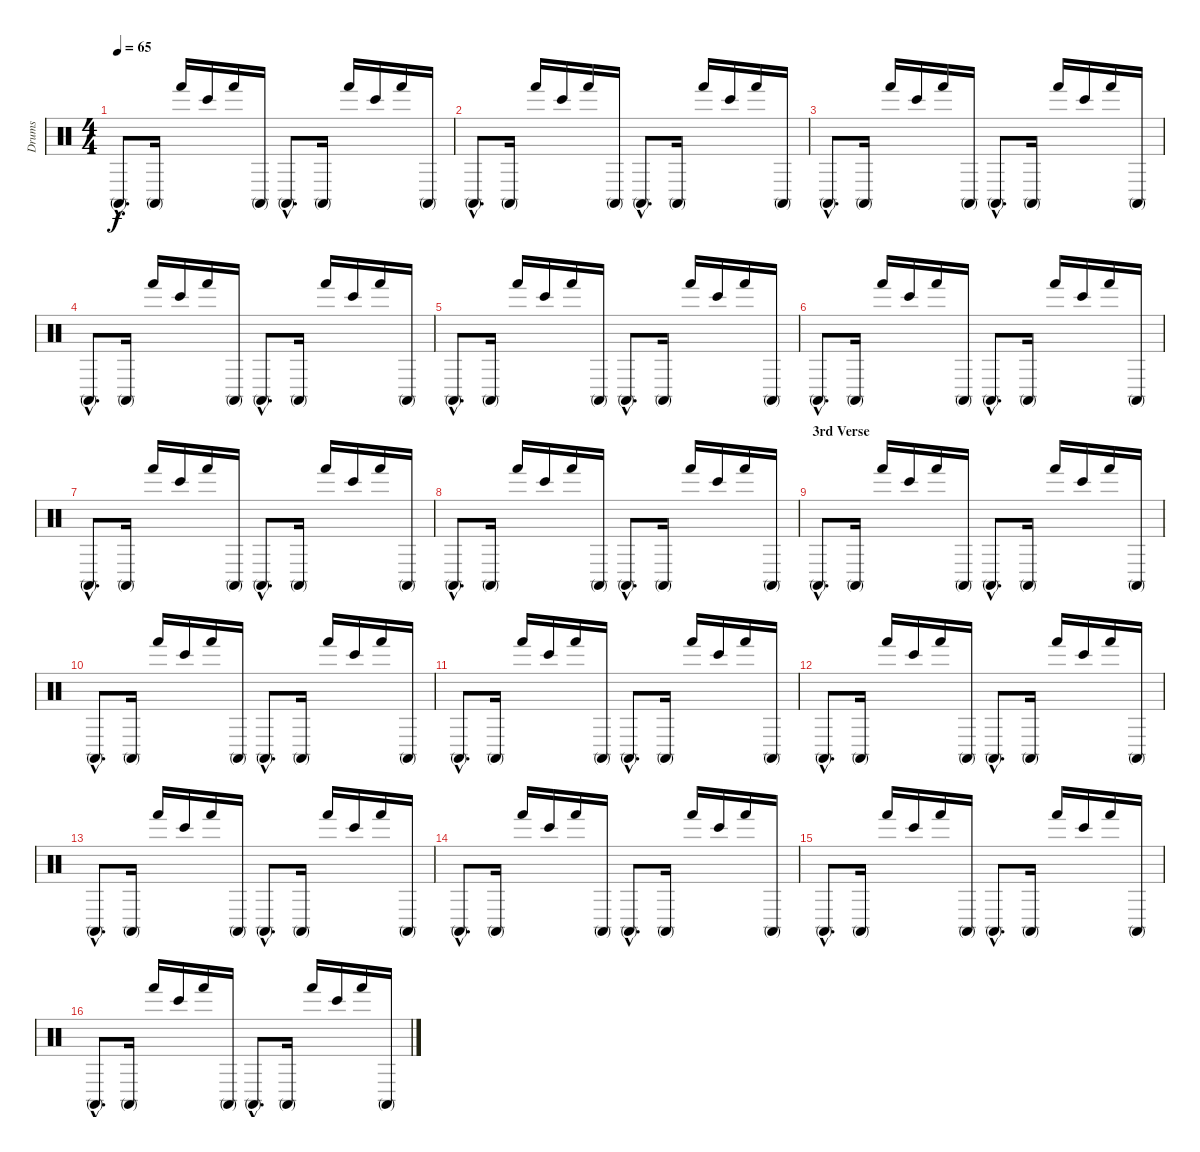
\track ("Drums" "Drums") {instrument percussion}
\staff {score}
\articulation defaults
\ts (4 4)
\tempo 65
\clef neutral
\ks c "Conga high (mute)"{hac}.8{d dy f} "Conga high (mute)".16 "Hand (hit)".16 "Bongo High (hit)".16 "Hand (hit)".16 "Conga high (mute)".16 "Conga high (mute)"{hac}.8{d} "Conga high (mute)".16 "Hand (hit)".16 "Bongo High (hit)".16 "Hand (hit)".16 "Conga high (mute)".16
|
"Conga high (mute)"{hac}.8{d} "Conga high (mute)".16 "Hand (hit)".16 "Bongo High (hit)".16 "Hand (hit)".16 "Conga high (mute)".16 "Conga high (mute)"{hac}.8{d} "Conga high (mute)".16 "Hand (hit)".16 "Bongo High (hit)".16 "Hand (hit)".16 "Conga high (mute)".16 |
"Conga high (mute)"{hac}.8{d} "Conga high (mute)".16 "Hand (hit)".16 "Bongo High (hit)".16 "Hand (hit)".16 "Conga high (mute)".16 "Conga high (mute)"{hac}.8{d} "Conga high (mute)".16 "Hand (hit)".16 "Bongo High (hit)".16 "Hand (hit)".16 "Conga high (mute)".16 |
"Conga high (mute)"{hac}.8{d} "Conga high (mute)".16 "Hand (hit)".16 "Bongo High (hit)".16 "Hand (hit)".16 "Conga high (mute)".16 "Conga high (mute)"{hac}.8{d} "Conga high (mute)".16 "Hand (hit)".16 "Bongo High (hit)".16 "Hand (hit)".16 "Conga high (mute)".16 |
"Conga high (mute)"{hac}.8{d} "Conga high (mute)".16 "Hand (hit)".16 "Bongo High (hit)".16 "Hand (hit)".16 "Conga high (mute)".16 "Conga high (mute)"{hac}.8{d} "Conga high (mute)".16 "Hand (hit)".16 "Bongo High (hit)".16 "Hand (hit)".16 "Conga high (mute)".16 |
"Conga high (mute)"{hac}.8{d} "Conga high (mute)".16 "Hand (hit)".16 "Bongo High (hit)".16 "Hand (hit)".16 "Conga high (mute)".16 "Conga high (mute)"{hac}.8{d} "Conga high (mute)".16 "Hand (hit)".16 "Bongo High (hit)".16 "Hand (hit)".16 "Conga high (mute)".16 |
"Conga high (mute)"{hac}.8{d} "Conga high (mute)".16 "Hand (hit)".16 "Bongo High (hit)".16 "Hand (hit)".16 "Conga high (mute)".16 "Conga high (mute)"{hac}.8{d} "Conga high (mute)".16 "Hand (hit)".16 "Bongo High (hit)".16 "Hand (hit)".16 "Conga high (mute)".16 |
"Conga high (mute)"{hac}.8{d} "Conga high (mute)".16 "Hand (hit)".16 "Bongo High (hit)".16 "Hand (hit)".16 "Conga high (mute)".16 "Conga high (mute)"{hac}.8{d} "Conga high (mute)".16 "Hand (hit)".16 "Bongo High (hit)".16 "Hand (hit)".16 "Conga high (mute)".16 |
\section ("" "3rd Verse")
"Conga high (mute)"{hac}.8{d} "Conga high (mute)".16 "Hand (hit)".16 "Bongo High (hit)".16 "Hand (hit)".16 "Conga high (mute)".16 "Conga high (mute)"{hac}.8{d} "Conga high (mute)".16 "Hand (hit)".16 "Bongo High (hit)".16 "Hand (hit)".16 "Conga high (mute)".16 |
"Conga high (mute)"{hac}.8{d} "Conga high (mute)".16 "Hand (hit)".16 "Bongo High (hit)".16 "Hand (hit)".16 "Conga high (mute)".16 "Conga high (mute)"{hac}.8{d} "Conga high (mute)".16 "Hand (hit)".16 "Bongo High (hit)".16 "Hand (hit)".16 "Conga high (mute)".16 |
"Conga high (mute)"{hac}.8{d} "Conga high (mute)".16 "Hand (hit)".16 "Bongo High (hit)".16 "Hand (hit)".16 "Conga high (mute)".16 "Conga high (mute)"{hac}.8{d} "Conga high (mute)".16 "Hand (hit)".16 "Bongo High (hit)".16 "Hand (hit)".16 "Conga high (mute)".16 |
"Conga high (mute)"{hac}.8{d} "Conga high (mute)".16 "Hand (hit)".16 "Bongo High (hit)".16 "Hand (hit)".16 "Conga high (mute)".16 "Conga high (mute)"{hac}.8{d} "Conga high (mute)".16 "Hand (hit)".16 "Bongo High (hit)".16 "Hand (hit)".16 "Conga high (mute)".16 |
"Conga high (mute)"{hac}.8{d} "Conga high (mute)".16 "Hand (hit)".16 "Bongo High (hit)".16 "Hand (hit)".16 "Conga high (mute)".16 "Conga high (mute)"{hac}.8{d} "Conga high (mute)".16 "Hand (hit)".16 "Bongo High (hit)".16 "Hand (hit)".16 "Conga high (mute)".16 |
"Conga high (mute)"{hac}.8{d} "Conga high (mute)".16 "Hand (hit)".16 "Bongo High (hit)".16 "Hand (hit)".16 "Conga high (mute)".16 "Conga high (mute)"{hac}.8{d} "Conga high (mute)".16 "Hand (hit)".16 "Bongo High (hit)".16 "Hand (hit)".16 "Conga high (mute)".16 |
"Conga high (mute)"{hac}.8{d} "Conga high (mute)".16 "Hand (hit)".16 "Bongo High (hit)".16 "Hand (hit)".16 "Conga high (mute)".16 "Conga high (mute)"{hac}.8{d} "Conga high (mute)".16 "Hand (hit)".16 "Bongo High (hit)".16 "Hand (hit)".16 "Conga high (mute)".16 |
"Conga high (mute)"{hac}.8{d} "Conga high (mute)".16 "Hand (hit)".16 "Bongo High (hit)".16 "Hand (hit)".16 "Conga high (mute)".16 "Conga high (mute)"{hac}.8{d} "Conga high (mute)".16 "Hand (hit)".16 "Bongo High (hit)".16 "Hand (hit)".16 "Conga high (mute)".16
